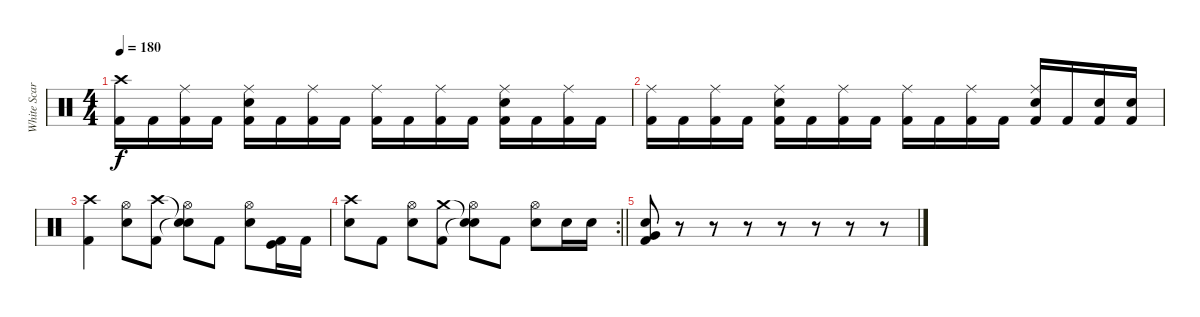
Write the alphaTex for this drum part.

\track ("White Scar" "White Scar") {instrument percussion}
\staff {score}
\articulation defaults
\ts (4 4)
\tempo 180
\clef neutral
\ks c
("Crash high (hit)" "Kick (hit) 2").16{dy f} "Kick (hit) 2".16 ("Ride (middle)" "Kick (hit) 2").16 "Kick (hit) 2".16 ("Snare (hit) 2" "Ride (middle)" "Kick (hit) 2").16 "Kick (hit) 2".16 ("Ride (middle)" "Kick (hit) 2").16 "Kick (hit) 2".16 ("Ride (middle)" "Kick (hit) 2").16 "Kick (hit) 2".16 ("Ride (middle)" "Kick (hit) 2").16 "Kick (hit) 2".16 ("Snare (hit) 2" "Ride (middle)" "Kick (hit) 2").16 "Kick (hit) 2".16 ("Ride (middle)" "Kick (hit) 2").16 "Kick (hit) 2".16 |
("Ride (middle)" "Kick (hit) 2").16 "Kick (hit) 2".16 ("Ride (middle)" "Kick (hit) 2").16 "Kick (hit) 2".16 ("Snare (hit) 2" "Ride (middle)" "Kick (hit) 2").16 "Kick (hit) 2".16 ("Ride (middle)" "Kick (hit) 2").16 "Kick (hit) 2".16 ("Ride (middle)" "Kick (hit) 2").16 "Kick (hit) 2".16 ("Ride (middle)" "Kick (hit) 2").16 "Kick (hit) 2".16 ("Snare (hit) 2" "Ride (middle)" "Kick (hit) 2").16 "Kick (hit) 2".16 ("Snare (hit) 2" "Kick (hit) 2").16 ("Snare (hit) 2" "Kick (hit) 2").16 |
("Kick (hit) 2" "Crash high (hit)").4 ("Snare (hit) 2" "Hi-Hat (open)").8 ("Kick (hit) 2" "Crash high (hit)").8 ("Snare (hit)"{t} "Snare (hit)"{t} "Hi-Hat (open)").8 "Kick (hit) 2".8 ("Snare (hit) 2" "Hi-Hat (open)").8 ("Kick (hit)" "Kick (hit) 2").16 "Kick (hit) 2".16 |
\rc 2
\barLineRight lightlight
("Snare (hit) 2" "Crash high (hit)").8 "Kick (hit) 2".8 ("Snare (hit) 2" "Hi-Hat (open)").8 ("Kick (hit) 2" "Crash medium (hit)").8 ("Snare (hit)"{t} "Snare (hit)"{t} "Hi-Hat (open)").8 "Kick (hit) 2".8 ("Snare (hit) 2" "Hi-Hat (open)").8 "Snare (hit) 2".16 "Snare (hit) 2".16 |
("Snare (hit) 2" "Very Low Tom (hit)" "Kick (hit) 2").8 r.8 r.8 r.8 r.8 r.8 r.8 r.8
